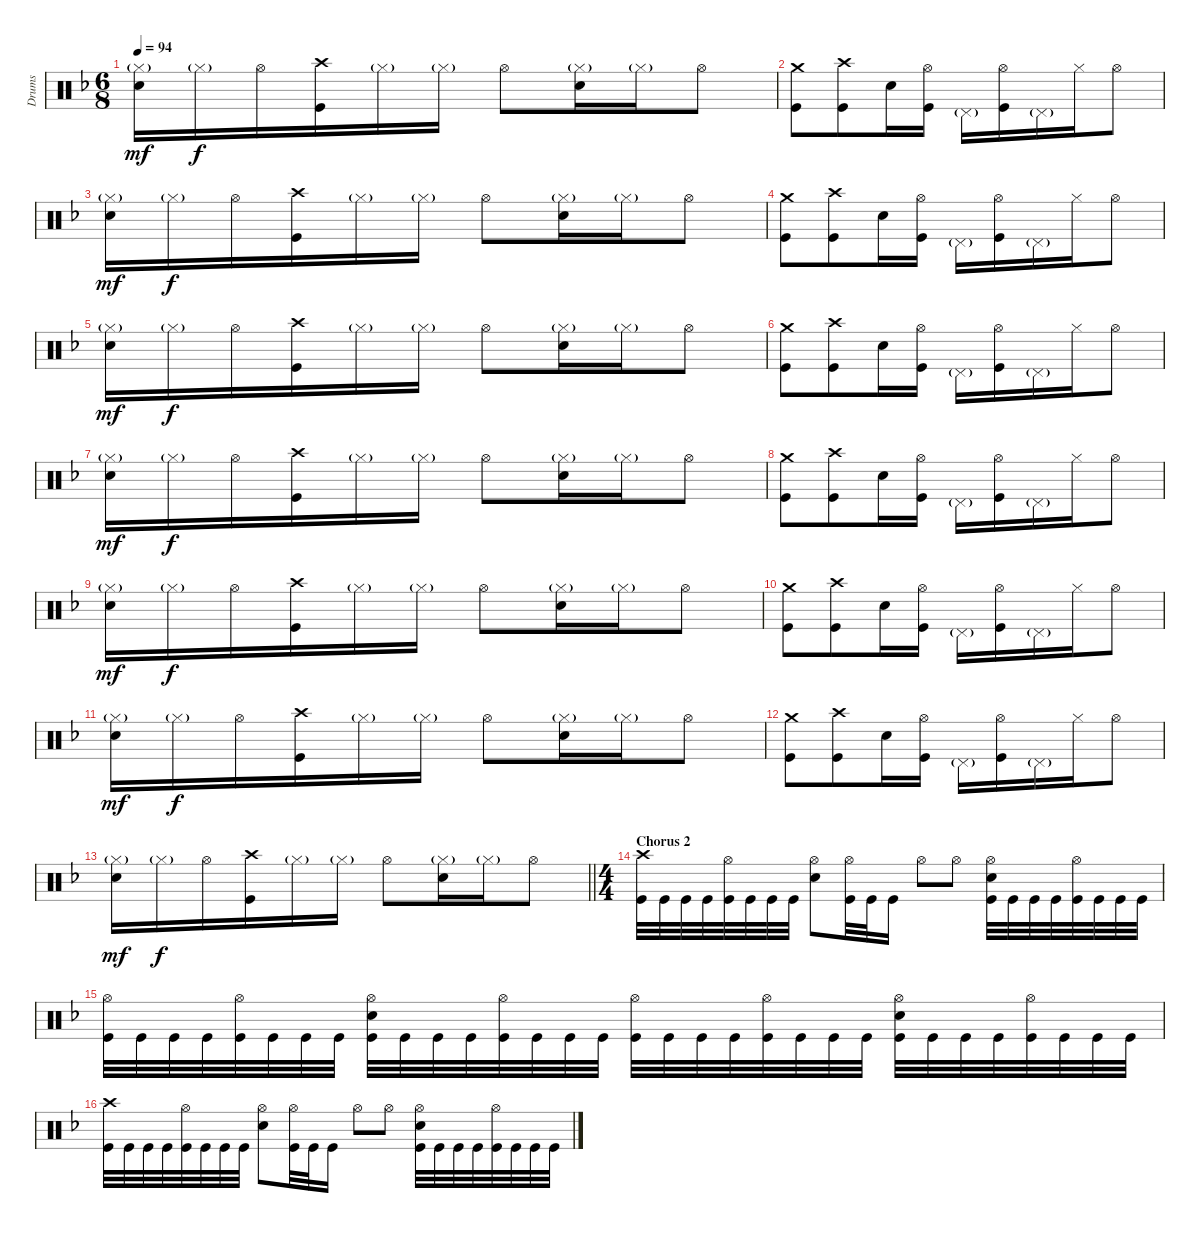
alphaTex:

\track ("Drums" "Drums") {instrument percussion bank 10}
\staff {score}
\articulation defaults
\ts (6 8)
\tempo 94
\clef neutral
\ks dminor
("Hi-Hat (closed)"{g} "Electric Snare (hit)").16{dy mf} "Hi-Hat (closed)"{g}.16{dy f} "Hi-Hat (open)".16 ("Crash high (hit)" "Kick (hit)").16 "Hi-Hat (closed)"{g}.16 "Hi-Hat (closed)"{g}.16 "Hi-Hat (open)".8 ("Hi-Hat (closed)"{g} "Electric Snare (hit)").16 "Hi-Hat (closed)"{g}.16 "Hi-Hat (open)".8 |
("Crash medium (hit)" "Kick (hit)").8 ("Crash high (hit)" "Kick (hit)").8 "Electric Snare (hit)".16 ("Hi-Hat (open)" "Kick (hit)").16 "Pedal Hi-Hat (hit)"{g}.16 ("Hi-Hat (open)" "Kick (hit)").16 "Pedal Hi-Hat (hit)"{g}.16 "Hi-Hat (closed)".16 "Hi-Hat (open)".8 |
("Hi-Hat (closed)"{g} "Electric Snare (hit)").16{dy mf} "Hi-Hat (closed)"{g}.16{dy f} "Hi-Hat (open)".16 ("Crash high (hit)" "Kick (hit)").16 "Hi-Hat (closed)"{g}.16 "Hi-Hat (closed)"{g}.16 "Hi-Hat (open)".8 ("Hi-Hat (closed)"{g} "Electric Snare (hit)").16 "Hi-Hat (closed)"{g}.16 "Hi-Hat (open)".8 |
("Crash medium (hit)" "Kick (hit)").8 ("Crash high (hit)" "Kick (hit)").8 "Electric Snare (hit)".16 ("Hi-Hat (open)" "Kick (hit)").16 "Pedal Hi-Hat (hit)"{g}.16 ("Hi-Hat (open)" "Kick (hit)").16 "Pedal Hi-Hat (hit)"{g}.16 "Hi-Hat (closed)".16 "Hi-Hat (open)".8 |
("Hi-Hat (closed)"{g} "Electric Snare (hit)").16{dy mf} "Hi-Hat (closed)"{g}.16{dy f} "Hi-Hat (open)".16 ("Crash high (hit)" "Kick (hit)").16 "Hi-Hat (closed)"{g}.16 "Hi-Hat (closed)"{g}.16 "Hi-Hat (open)".8 ("Hi-Hat (closed)"{g} "Electric Snare (hit)").16 "Hi-Hat (closed)"{g}.16 "Hi-Hat (open)".8 |
("Crash medium (hit)" "Kick (hit)").8 ("Crash high (hit)" "Kick (hit)").8 "Electric Snare (hit)".16 ("Hi-Hat (open)" "Kick (hit)").16 "Pedal Hi-Hat (hit)"{g}.16 ("Hi-Hat (open)" "Kick (hit)").16 "Pedal Hi-Hat (hit)"{g}.16 "Hi-Hat (closed)".16 "Hi-Hat (open)".8 |
("Hi-Hat (closed)"{g} "Electric Snare (hit)").16{dy mf} "Hi-Hat (closed)"{g}.16{dy f} "Hi-Hat (open)".16 ("Crash high (hit)" "Kick (hit)").16 "Hi-Hat (closed)"{g}.16 "Hi-Hat (closed)"{g}.16 "Hi-Hat (open)".8 ("Hi-Hat (closed)"{g} "Electric Snare (hit)").16 "Hi-Hat (closed)"{g}.16 "Hi-Hat (open)".8 |
("Crash medium (hit)" "Kick (hit)").8 ("Crash high (hit)" "Kick (hit)").8 "Electric Snare (hit)".16 ("Hi-Hat (open)" "Kick (hit)").16 "Pedal Hi-Hat (hit)"{g}.16 ("Hi-Hat (open)" "Kick (hit)").16 "Pedal Hi-Hat (hit)"{g}.16 "Hi-Hat (closed)".16 "Hi-Hat (open)".8 |
("Hi-Hat (closed)"{g} "Electric Snare (hit)").16{dy mf} "Hi-Hat (closed)"{g}.16{dy f} "Hi-Hat (open)".16 ("Crash high (hit)" "Kick (hit)").16 "Hi-Hat (closed)"{g}.16 "Hi-Hat (closed)"{g}.16 "Hi-Hat (open)".8 ("Hi-Hat (closed)"{g} "Electric Snare (hit)").16 "Hi-Hat (closed)"{g}.16 "Hi-Hat (open)".8 |
("Crash medium (hit)" "Kick (hit)").8 ("Crash high (hit)" "Kick (hit)").8 "Electric Snare (hit)".16 ("Hi-Hat (open)" "Kick (hit)").16 "Pedal Hi-Hat (hit)"{g}.16 ("Hi-Hat (open)" "Kick (hit)").16 "Pedal Hi-Hat (hit)"{g}.16 "Hi-Hat (closed)".16 "Hi-Hat (open)".8 |
("Hi-Hat (closed)"{g} "Electric Snare (hit)").16{dy mf} "Hi-Hat (closed)"{g}.16{dy f} "Hi-Hat (open)".16 ("Crash high (hit)" "Kick (hit)").16 "Hi-Hat (closed)"{g}.16 "Hi-Hat (closed)"{g}.16 "Hi-Hat (open)".8 ("Hi-Hat (closed)"{g} "Electric Snare (hit)").16 "Hi-Hat (closed)"{g}.16 "Hi-Hat (open)".8 |
("Crash medium (hit)" "Kick (hit)").8 ("Crash high (hit)" "Kick (hit)").8 "Electric Snare (hit)".16 ("Hi-Hat (open)" "Kick (hit)").16 "Pedal Hi-Hat (hit)"{g}.16 ("Hi-Hat (open)" "Kick (hit)").16 "Pedal Hi-Hat (hit)"{g}.16 "Hi-Hat (closed)".16 "Hi-Hat (open)".8 |
\barLineRight lightlight
("Hi-Hat (closed)"{g} "Electric Snare (hit)").16{dy mf} "Hi-Hat (closed)"{g}.16{dy f} "Hi-Hat (open)".16 ("Crash high (hit)" "Kick (hit)").16 "Hi-Hat (closed)"{g}.16 "Hi-Hat (closed)"{g}.16 "Hi-Hat (open)".8 ("Hi-Hat (closed)"{g} "Electric Snare (hit)").16 "Hi-Hat (closed)"{g}.16 "Hi-Hat (open)".8 |
\ts (4 4)
\section ("" "Chorus 2")
("Crash high (hit)" "Kick (hit)").32 "Kick (hit)".32 "Kick (hit)".32 "Kick (hit)".32 ("Hi-Hat (open)" "Kick (hit)").32 "Kick (hit)".32 "Kick (hit)".32 "Kick (hit)".32 ("Hi-Hat (open)" "Electric Snare (hit)").8 ("Hi-Hat (open)" "Kick (hit)").32 "Kick (hit)".32 "Kick (hit)".16 "Hi-Hat (open)".8 "Hi-Hat (open)".8 ("Hi-Hat (open)" "Electric Snare (hit)" "Kick (hit)").32 "Kick (hit)".32 "Kick (hit)".32 "Kick (hit)".32 ("Hi-Hat (open)" "Kick (hit)").32 "Kick (hit)".32 "Kick (hit)".32 "Kick (hit)".32 |
("Hi-Hat (open)" "Kick (hit)").32 "Kick (hit)".32 "Kick (hit)".32 "Kick (hit)".32 ("Hi-Hat (open)" "Kick (hit)").32 "Kick (hit)".32 "Kick (hit)".32 "Kick (hit)".32 ("Hi-Hat (open)" "Electric Snare (hit)" "Kick (hit)").32 "Kick (hit)".32 "Kick (hit)".32 "Kick (hit)".32 ("Hi-Hat (open)" "Kick (hit)").32 "Kick (hit)".32 "Kick (hit)".32 "Kick (hit)".32 ("Hi-Hat (open)" "Kick (hit)").32 "Kick (hit)".32 "Kick (hit)".32 "Kick (hit)".32 ("Hi-Hat (open)" "Kick (hit)").32 "Kick (hit)".32 "Kick (hit)".32 "Kick (hit)".32 ("Hi-Hat (open)" "Electric Snare (hit)" "Kick (hit)").32 "Kick (hit)".32 "Kick (hit)".32 "Kick (hit)".32 ("Hi-Hat (open)" "Kick (hit)").32 "Kick (hit)".32 "Kick (hit)".32 "Kick (hit)".32 |
("Crash high (hit)" "Kick (hit)").32 "Kick (hit)".32 "Kick (hit)".32 "Kick (hit)".32 ("Hi-Hat (open)" "Kick (hit)").32 "Kick (hit)".32 "Kick (hit)".32 "Kick (hit)".32 ("Hi-Hat (open)" "Electric Snare (hit)").8 ("Hi-Hat (open)" "Kick (hit)").32 "Kick (hit)".32 "Kick (hit)".16 "Hi-Hat (open)".8 "Hi-Hat (open)".8 ("Hi-Hat (open)" "Electric Snare (hit)" "Kick (hit)").32 "Kick (hit)".32 "Kick (hit)".32 "Kick (hit)".32 ("Hi-Hat (open)" "Kick (hit)").32 "Kick (hit)".32 "Kick (hit)".32 "Kick (hit)".32
